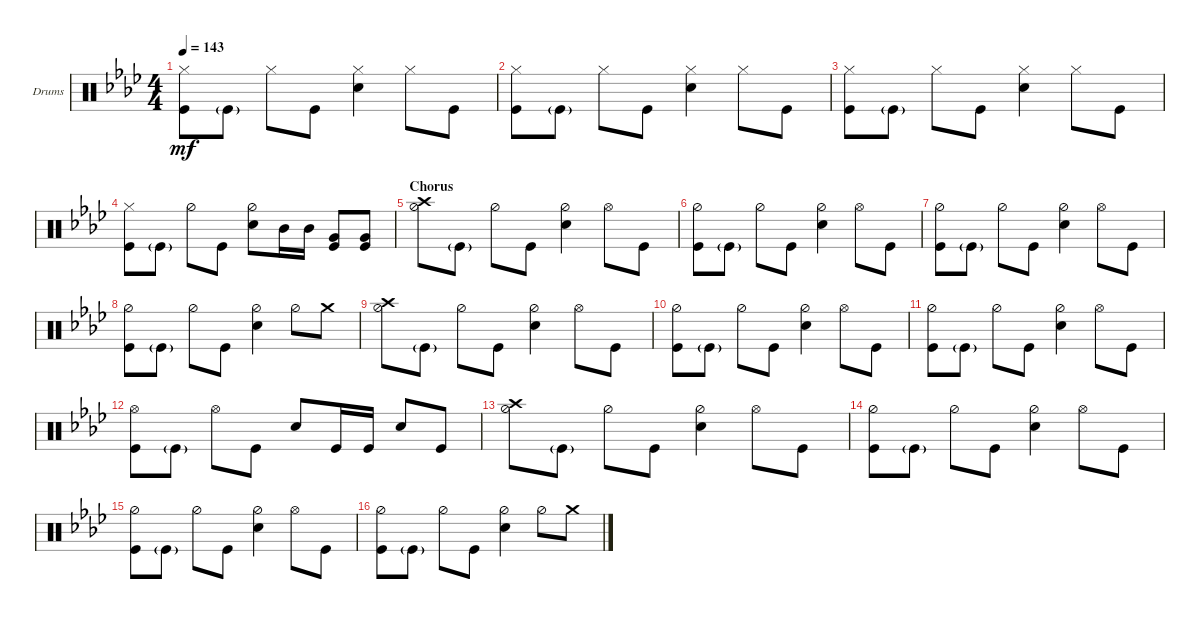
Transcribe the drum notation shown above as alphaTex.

\defaultSystemsLayout 4
\bracketExtendMode groupsimilarinstruments
\firstSystemTrackNameOrientation horizontal
\otherSystemsTrackNameOrientation horizontal
\track ("Drumkit" "Drums") {instrument percussion}
\staff {score}
\articulation defaults
\ts (4 4)
\tempo 143
\clef neutral
\ks fminor
("Kick (hit)" "Hi-Hat (closed)").8{dy mf} "Kick (hit)"{g}.8 "Hi-Hat (closed)".8 "Kick (hit)".8 ("Snare (hit) 2" "Hi-Hat (closed)").4 "Hi-Hat (closed)".8 "Kick (hit)".8 |
("Kick (hit)" "Hi-Hat (closed)").8 "Kick (hit)"{g}.8 "Hi-Hat (closed)".8 "Kick (hit)".8 ("Snare (hit) 2" "Hi-Hat (closed)").4 "Hi-Hat (closed)".8 "Kick (hit)".8 |
("Kick (hit)" "Hi-Hat (closed)").8 "Kick (hit)"{g}.8 "Hi-Hat (closed)".8 "Kick (hit)".8 ("Snare (hit) 2" "Hi-Hat (closed)").4 "Hi-Hat (closed)".8 "Kick (hit)".8 |
("Kick (hit)" "Hi-Hat (closed)").8 "Kick (hit)"{g}.8 "Hi-Hat (half)".8 "Kick (hit)".8 ("Snare (hit) 2" "Hi-Hat (half)").8 "Mid Tom (hit)".16 "Mid Tom (hit)".16 ("Kick (hit)" "Very Low Tom (hit)").8 ("Kick (hit)" "Very Low Tom (hit)").8 |
\section ("" "Chorus")
("Crash high (hit)" "Hi-Hat (half)").8 "Kick (hit)"{g}.8 "Hi-Hat (half)".8 "Kick (hit)".8 ("Snare (hit) 2" "Hi-Hat (half)").4 "Hi-Hat (open)".8 "Kick (hit)".8 |
("Kick (hit)" "Hi-Hat (half)").8 "Kick (hit)"{g}.8 "Hi-Hat (half)".8 "Kick (hit)".8 ("Snare (hit) 2" "Hi-Hat (half)").4 "Hi-Hat (open)".8 "Kick (hit)".8 |
("Kick (hit)" "Hi-Hat (half)").8 "Kick (hit)"{g}.8 "Hi-Hat (half)".8 "Kick (hit)".8 ("Snare (hit) 2" "Hi-Hat (half)").4 "Hi-Hat (open)".8 "Kick (hit)".8 |
("Kick (hit)" "Hi-Hat (half)").8 "Kick (hit)"{g}.8 "Hi-Hat (half)".8 "Kick (hit)".8 ("Snare (hit) 2" "Hi-Hat (half)").4 "Hi-Hat (half)".8 "Crash medium (hit)".8 |
("Crash high (hit)" "Hi-Hat (half)").8 "Kick (hit)"{g}.8 "Hi-Hat (half)".8 "Kick (hit)".8 ("Snare (hit) 2" "Hi-Hat (half)").4 "Hi-Hat (open)".8 "Kick (hit)".8 |
("Kick (hit)" "Hi-Hat (half)").8 "Kick (hit)"{g}.8 "Hi-Hat (half)".8 "Kick (hit)".8 ("Snare (hit) 2" "Hi-Hat (half)").4 "Hi-Hat (open)".8 "Kick (hit)".8 |
("Kick (hit)" "Hi-Hat (half)").8 "Kick (hit)"{g}.8 "Hi-Hat (half)".8 "Kick (hit)".8 ("Snare (hit) 2" "Hi-Hat (half)").4 "Hi-Hat (open)".8 "Kick (hit)".8 |
("Kick (hit)" "Hi-Hat (open)").8 "Kick (hit)"{g}.8 "Hi-Hat (open)".8 "Kick (hit)".8 "Snare (hit) 2".8 "Kick (hit)".16 "Kick (hit)".16 "Snare (hit) 2".8 "Kick (hit)".8 |
("Crash high (hit)" "Hi-Hat (half)").8 "Kick (hit)"{g}.8 "Hi-Hat (half)".8 "Kick (hit)".8 ("Snare (hit) 2" "Hi-Hat (half)").4 "Hi-Hat (open)".8 "Kick (hit)".8 |
("Kick (hit)" "Hi-Hat (half)").8 "Kick (hit)"{g}.8 "Hi-Hat (half)".8 "Kick (hit)".8 ("Snare (hit) 2" "Hi-Hat (half)").4 "Hi-Hat (open)".8 "Kick (hit)".8 |
("Kick (hit)" "Hi-Hat (half)").8 "Kick (hit)"{g}.8 "Hi-Hat (half)".8 "Kick (hit)".8 ("Snare (hit) 2" "Hi-Hat (half)").4 "Hi-Hat (open)".8 "Kick (hit)".8 |
("Kick (hit)" "Hi-Hat (half)").8 "Kick (hit)"{g}.8 "Hi-Hat (half)".8 "Kick (hit)".8 ("Snare (hit) 2" "Hi-Hat (half)").4 "Hi-Hat (half)".8 "Crash medium (hit)".8
